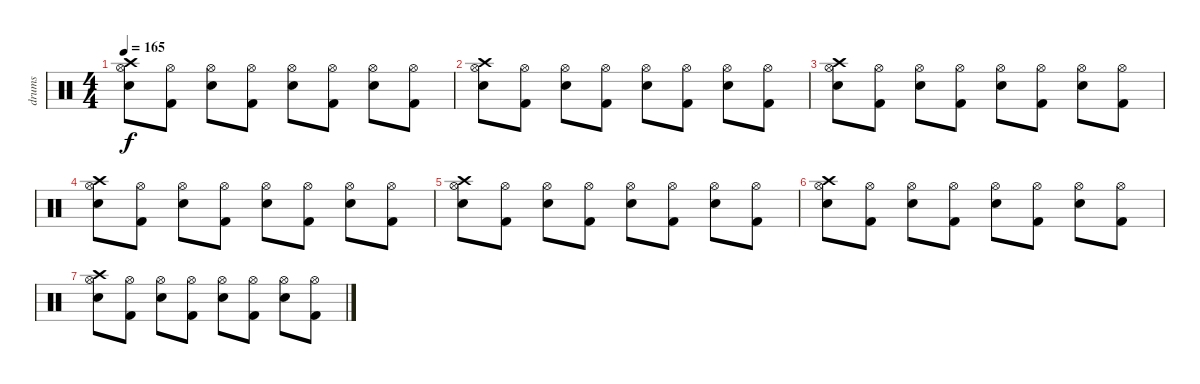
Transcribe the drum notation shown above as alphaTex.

\track ("drums" "drums") {instrument percussion}
\staff {score}
\articulation defaults
\ts (4 4)
\tempo 165
\clef neutral
\ks c
("Crash high (hit)" "Hi-Hat (open)" "Electric Snare (hit)").8{dy f} ("Hi-Hat (open)" "Kick (hit) 2").8 ("Hi-Hat (open)" "Electric Snare (hit)").8 ("Hi-Hat (open)" "Kick (hit) 2").8 ("Hi-Hat (open)" "Electric Snare (hit)").8 ("Hi-Hat (open)" "Kick (hit) 2").8 ("Hi-Hat (open)" "Electric Snare (hit)").8 ("Hi-Hat (open)" "Kick (hit) 2").8 |
("Crash high (hit)" "Hi-Hat (open)" "Electric Snare (hit)").8 ("Hi-Hat (open)" "Kick (hit) 2").8 ("Hi-Hat (open)" "Electric Snare (hit)").8 ("Hi-Hat (open)" "Kick (hit) 2").8 ("Hi-Hat (open)" "Electric Snare (hit)").8 ("Hi-Hat (open)" "Kick (hit) 2").8 ("Hi-Hat (open)" "Electric Snare (hit)").8 ("Hi-Hat (open)" "Kick (hit) 2").8 |
("Crash high (hit)" "Hi-Hat (open)" "Electric Snare (hit)").8 ("Hi-Hat (open)" "Kick (hit) 2").8 ("Hi-Hat (open)" "Electric Snare (hit)").8 ("Hi-Hat (open)" "Kick (hit) 2").8 ("Hi-Hat (open)" "Electric Snare (hit)").8 ("Hi-Hat (open)" "Kick (hit) 2").8 ("Hi-Hat (open)" "Electric Snare (hit)").8 ("Hi-Hat (open)" "Kick (hit) 2").8 |
("Crash high (hit)" "Hi-Hat (open)" "Electric Snare (hit)").8 ("Hi-Hat (open)" "Kick (hit) 2").8 ("Hi-Hat (open)" "Electric Snare (hit)").8 ("Hi-Hat (open)" "Kick (hit) 2").8 ("Hi-Hat (open)" "Electric Snare (hit)").8 ("Hi-Hat (open)" "Kick (hit) 2").8 ("Hi-Hat (open)" "Electric Snare (hit)").8 ("Hi-Hat (open)" "Kick (hit) 2").8 |
("Crash high (hit)" "Hi-Hat (open)" "Electric Snare (hit)").8 ("Hi-Hat (open)" "Kick (hit) 2").8 ("Hi-Hat (open)" "Electric Snare (hit)").8 ("Hi-Hat (open)" "Kick (hit) 2").8 ("Hi-Hat (open)" "Electric Snare (hit)").8 ("Hi-Hat (open)" "Kick (hit) 2").8 ("Hi-Hat (open)" "Electric Snare (hit)").8 ("Hi-Hat (open)" "Kick (hit) 2").8 |
("Crash high (hit)" "Hi-Hat (open)" "Electric Snare (hit)").8 ("Hi-Hat (open)" "Kick (hit) 2").8 ("Hi-Hat (open)" "Electric Snare (hit)").8 ("Hi-Hat (open)" "Kick (hit) 2").8 ("Hi-Hat (open)" "Electric Snare (hit)").8 ("Hi-Hat (open)" "Kick (hit) 2").8 ("Hi-Hat (open)" "Electric Snare (hit)").8 ("Hi-Hat (open)" "Kick (hit) 2").8 |
("Crash high (hit)" "Hi-Hat (open)" "Electric Snare (hit)").8 ("Hi-Hat (open)" "Kick (hit) 2").8 ("Hi-Hat (open)" "Electric Snare (hit)").8 ("Hi-Hat (open)" "Kick (hit) 2").8 ("Hi-Hat (open)" "Electric Snare (hit)").8 ("Hi-Hat (open)" "Kick (hit) 2").8 ("Hi-Hat (open)" "Electric Snare (hit)").8 ("Hi-Hat (open)" "Kick (hit) 2").8
